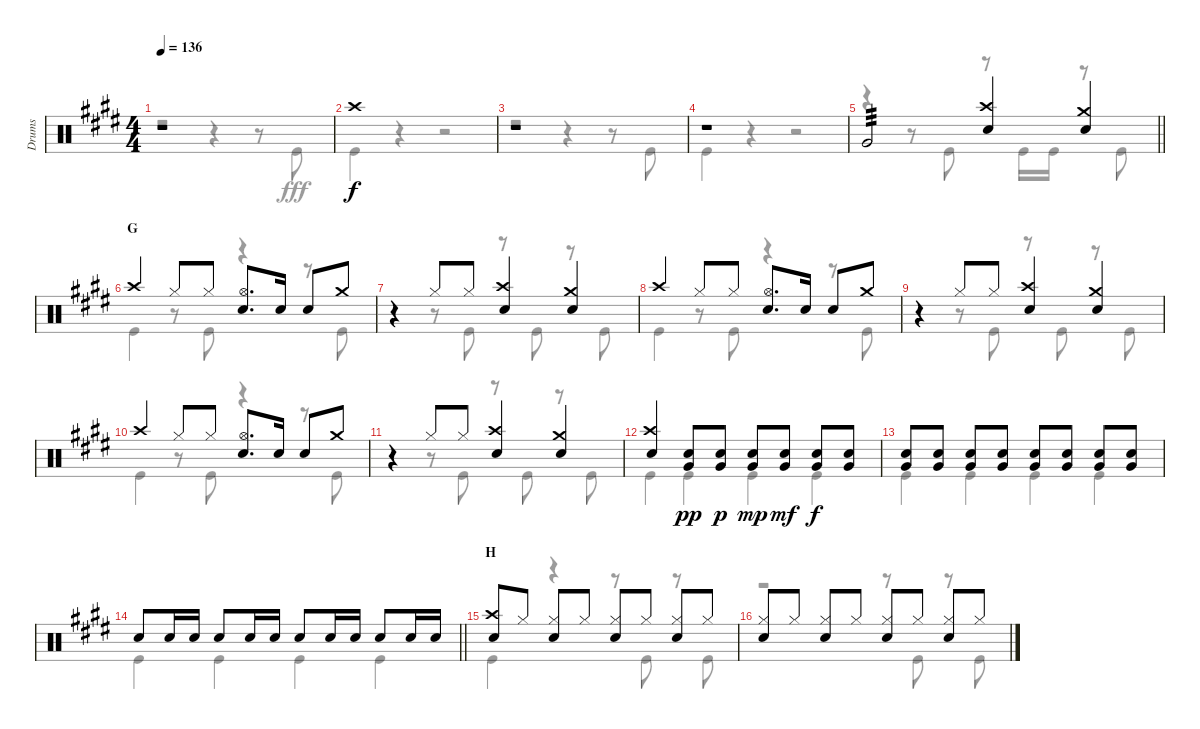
\track ("Drums" "Drums") {instrument percussion}
\staff {score}
\articulation defaults
\voice
\ts (4 4)
\tempo 136
\clef neutral
\ks e
r.1{dy f} |
"Crash high (hit)".1 |
r.1 |
r.1 |
\barLineRight lightlight "Very Low Tom (hit)".2{tp 3}
("Crash high (hit)" "Snare (hit) 2").4 ("Crash medium (hit)" "Snare (hit) 2").4 |
\section ("" "G")
"Crash high (hit)".4 "Hi-Hat (closed)".8 "Hi-Hat (closed)".8 ("Hi-Hat (open)" "Snare (hit) 2").8{d} "Snare (hit) 2".16 "Snare (hit) 2".8 "Crash medium (hit)".8 |
r.4 "Hi-Hat (closed)".8 "Hi-Hat (closed)".8 ("Crash high (hit)" "Snare (hit) 2").4 ("Crash medium (hit)" "Snare (hit) 2").4 |
"Crash high (hit)".4 "Hi-Hat (closed)".8 "Hi-Hat (closed)".8 ("Hi-Hat (open)" "Snare (hit) 2").8{d} "Snare (hit) 2".16 "Snare (hit) 2".8 "Crash medium (hit)".8 |
r.4 "Hi-Hat (closed)".8 "Hi-Hat (closed)".8 ("Crash high (hit)" "Snare (hit) 2").4 ("Crash medium (hit)" "Snare (hit) 2").4 |
"Crash high (hit)".4 "Hi-Hat (closed)".8 "Hi-Hat (closed)".8 ("Hi-Hat (open)" "Snare (hit) 2").8{d} "Snare (hit) 2".16 "Snare (hit) 2".8 "Crash medium (hit)".8 |
r.4 "Hi-Hat (closed)".8 "Hi-Hat (closed)".8 ("Crash high (hit)" "Snare (hit) 2").4 ("Crash medium (hit)" "Snare (hit) 2").4 |
("Crash high (hit)" "Snare (hit) 2").4 ("Snare (hit) 2" "Very Low Tom (hit)").8{dy pp} ("Snare (hit) 2" "Very Low Tom (hit)").8{dy p} ("Snare (hit) 2" "Very Low Tom (hit)").8{dy mp} ("Snare (hit) 2" "Very Low Tom (hit)").8{dy mf} ("Snare (hit) 2" "Very Low Tom (hit)").8{dy f} ("Snare (hit) 2" "Very Low Tom (hit)").8 |
("Snare (hit) 2" "Very Low Tom (hit)").8 ("Snare (hit) 2" "Very Low Tom (hit)").8 ("Snare (hit) 2" "Very Low Tom (hit)").8 ("Snare (hit) 2" "Very Low Tom (hit)").8 ("Snare (hit) 2" "Very Low Tom (hit)").8 ("Snare (hit) 2" "Very Low Tom (hit)").8 ("Snare (hit) 2" "Very Low Tom (hit)").8 ("Snare (hit) 2" "Very Low Tom (hit)").8 |
\barLineRight lightlight "Snare (hit) 2".8 "Snare (hit) 2".16 "Snare (hit) 2".16 "Snare (hit) 2".8 "Snare (hit) 2".16 "Snare (hit) 2".16 "Snare (hit) 2".8 "Snare (hit) 2".16 "Snare (hit) 2".16 "Snare (hit) 2".8 "Snare (hit) 2".16 "Snare (hit) 2".16
|
\section ("" "H")
("Crash high (hit)" "Snare (hit) 2").8 "Hi-Hat (closed)".8 ("Hi-Hat (closed)" "Snare (hit) 2").8 "Hi-Hat (closed)".8 ("Hi-Hat (closed)" "Snare (hit) 2").8 "Hi-Hat (closed)".8 ("Hi-Hat (closed)" "Snare (hit) 2").8 "Hi-Hat (closed)".8 |
("Hi-Hat (closed)" "Snare (hit) 2").8 "Hi-Hat (closed)".8 ("Hi-Hat (closed)" "Snare (hit) 2").8 "Hi-Hat (closed)".8 ("Hi-Hat (closed)" "Snare (hit) 2").8 "Hi-Hat (closed)".8 ("Hi-Hat (closed)" "Snare (hit) 2").8 "Hi-Hat (closed)".8
\voice
\clef neutral
\ottava regular
\simile none
\ks e
r.2{dy fff} r.4 r.8 "Kick (hit)".8 |
"Kick (hit)".4 r.4 r.2 |
r.2 r.4 r.8 "Kick (hit)".8 |
"Kick (hit)".4 r.4 r.2 |
\barLineRight lightlight
r.4 r.8 "Kick (hit)".8 r.8 "Kick (hit)".16 "Kick (hit)".16 r.8 "Kick (hit)".8 |
"Kick (hit)".4 r.8 "Kick (hit)".8 r.4 r.8 "Kick (hit)".8 |
r.4 r.8 "Kick (hit)".8 r.8 "Kick (hit)".8 r.8 "Kick (hit)".8 |
"Kick (hit)".4 r.8 "Kick (hit)".8 r.4 r.8 "Kick (hit)".8 |
r.4 r.8 "Kick (hit)".8 r.8 "Kick (hit)".8 r.8 "Kick (hit)".8 |
"Kick (hit)".4 r.8 "Kick (hit)".8 r.4 r.8 "Kick (hit)".8 |
r.4 r.8 "Kick (hit)".8 r.8 "Kick (hit)".8 r.8 "Kick (hit)".8 |
"Kick (hit)".4 "Kick (hit)".4 "Kick (hit)".4 "Kick (hit)".4 |
"Kick (hit)".4 "Kick (hit)".4 "Kick (hit)".4 "Kick (hit)".4 |
\barLineRight lightlight "Kick (hit)".4 "Kick (hit)".4 "Kick (hit)".4 "Kick (hit)".4
|
"Kick (hit)".4 r.4 r.8 "Kick (hit)".8 r.8 "Kick (hit)".8 |
r.2 r.8 "Kick (hit)".8 r.8 "Kick (hit)".8
